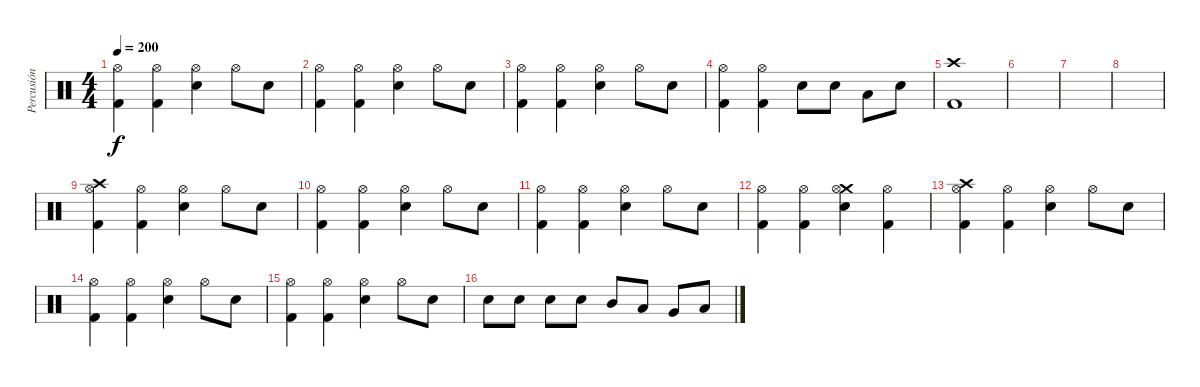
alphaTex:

\track ("Percusión" "Percusión") {instrument percussion}
\staff {score}
\articulation defaults
\ts (4 4)
\tempo 200
\clef neutral
\ks c
("Hi-Hat (open)" "Kick (hit) 2").4{dy f} ("Hi-Hat (open)" "Kick (hit) 2").4 ("Hi-Hat (open)" "Electric Snare (hit)").4 "Hi-Hat (open)".8 "Electric Snare (hit)".8 |
("Hi-Hat (open)" "Kick (hit) 2").4 ("Hi-Hat (open)" "Kick (hit) 2").4 ("Hi-Hat (open)" "Electric Snare (hit)").4 "Hi-Hat (open)".8 "Electric Snare (hit)".8 |
("Hi-Hat (open)" "Kick (hit) 2").4 ("Hi-Hat (open)" "Kick (hit) 2").4 ("Hi-Hat (open)" "Electric Snare (hit)").4 "Hi-Hat (open)".8 "Electric Snare (hit)".8 |
("Hi-Hat (open)" "Kick (hit) 2").4 ("Hi-Hat (open)" "Kick (hit) 2").4 "Electric Snare (hit)".8 "Electric Snare (hit)".8 "Low Tom (hit)".8 "Electric Snare (hit)".8 |
("Crash high (hit)" "Kick (hit) 2").1 |
|
|
|
("Crash high (hit)" "Hi-Hat (open)" "Kick (hit) 2").4 ("Hi-Hat (open)" "Kick (hit) 2").4 ("Hi-Hat (open)" "Electric Snare (hit)").4 "Hi-Hat (open)".8 "Electric Snare (hit)".8 |
("Hi-Hat (open)" "Kick (hit) 2").4 ("Hi-Hat (open)" "Kick (hit) 2").4 ("Hi-Hat (open)" "Electric Snare (hit)").4 "Hi-Hat (open)".8 "Electric Snare (hit)".8 |
("Hi-Hat (open)" "Kick (hit) 2").4 ("Hi-Hat (open)" "Kick (hit) 2").4 ("Hi-Hat (open)" "Electric Snare (hit)").4 "Hi-Hat (open)".8 "Electric Snare (hit)".8 |
("Hi-Hat (open)" "Kick (hit) 2").4 ("Hi-Hat (open)" "Kick (hit) 2").4 ("Crash medium (hit)" "Hi-Hat (open)" "Electric Snare (hit)").4 ("Hi-Hat (open)" "Kick (hit) 2").4 |
("Crash high (hit)" "Hi-Hat (open)" "Kick (hit) 2").4 ("Hi-Hat (open)" "Kick (hit) 2").4 ("Hi-Hat (open)" "Electric Snare (hit)").4 "Hi-Hat (open)".8 "Electric Snare (hit)".8 |
("Hi-Hat (open)" "Kick (hit) 2").4 ("Hi-Hat (open)" "Kick (hit) 2").4 ("Hi-Hat (open)" "Electric Snare (hit)").4 "Hi-Hat (open)".8 "Electric Snare (hit)".8 |
("Hi-Hat (open)" "Kick (hit) 2").4 ("Hi-Hat (open)" "Kick (hit) 2").4 ("Hi-Hat (open)" "Electric Snare (hit)").4 "Hi-Hat (open)".8 "Electric Snare (hit)".8 |
"Electric Snare (hit)".8 "Electric Snare (hit)".8 "Electric Snare (hit)".8 "Electric Snare (hit)".8 "Mid Tom (hit)".8 "Low Tom (hit)".8 "Very Low Tom (hit)".8 "Low Floor Tom (hit)".8
